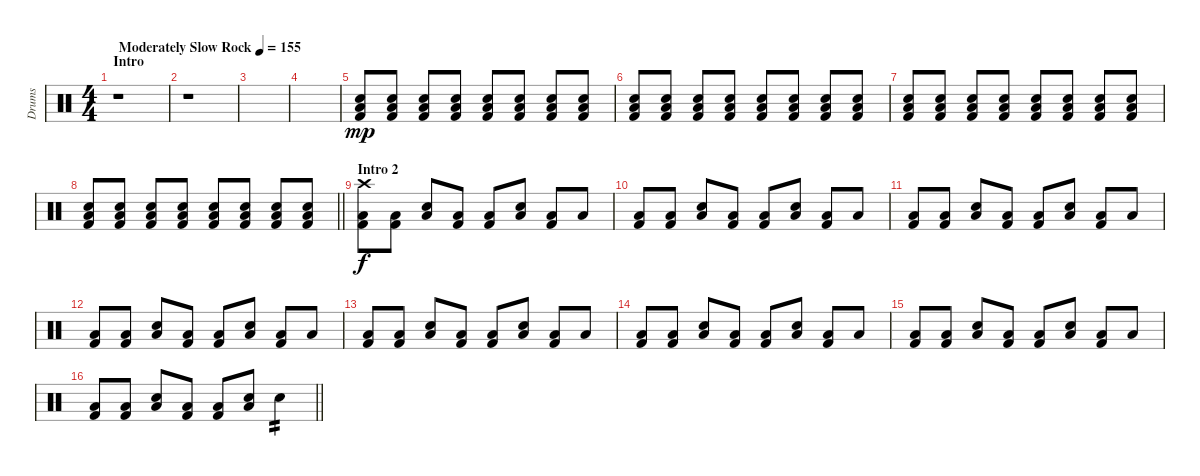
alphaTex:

\track ("Drums" "Drums") {instrument percussion}
\staff {score}
\articulation defaults
\ts (4 4)
\section ("" "Intro")
\tempo (155 "Moderately Slow Rock")
\clef neutral
\ks c
r.1{dy mp volume 7} |
r.1 |
|
|
("Snare (hit) 2" "Low Floor Tom (hit)" "Kick (hit) 2").8{volume 15} ("Snare (hit) 2" "Low Floor Tom (hit)" "Kick (hit) 2").8 ("Snare (hit) 2" "Low Floor Tom (hit)" "Kick (hit) 2").8 ("Snare (hit) 2" "Low Floor Tom (hit)" "Kick (hit) 2").8 ("Snare (hit) 2" "Low Floor Tom (hit)" "Kick (hit) 2").8 ("Snare (hit) 2" "Low Floor Tom (hit)" "Kick (hit) 2").8 ("Snare (hit) 2" "Low Floor Tom (hit)" "Kick (hit) 2").8 ("Snare (hit) 2" "Low Floor Tom (hit)" "Kick (hit) 2").8 |
("Snare (hit) 2" "Low Floor Tom (hit)" "Kick (hit) 2").8 ("Snare (hit) 2" "Low Floor Tom (hit)" "Kick (hit) 2").8 ("Snare (hit) 2" "Low Floor Tom (hit)" "Kick (hit) 2").8 ("Snare (hit) 2" "Low Floor Tom (hit)" "Kick (hit) 2").8 ("Snare (hit) 2" "Low Floor Tom (hit)" "Kick (hit) 2").8 ("Snare (hit) 2" "Low Floor Tom (hit)" "Kick (hit) 2").8 ("Snare (hit) 2" "Low Floor Tom (hit)" "Kick (hit) 2").8 ("Snare (hit) 2" "Low Floor Tom (hit)" "Kick (hit) 2").8 |
("Snare (hit) 2" "Low Floor Tom (hit)" "Kick (hit) 2").8 ("Snare (hit) 2" "Low Floor Tom (hit)" "Kick (hit) 2").8 ("Snare (hit) 2" "Low Floor Tom (hit)" "Kick (hit) 2").8 ("Snare (hit) 2" "Low Floor Tom (hit)" "Kick (hit) 2").8 ("Snare (hit) 2" "Low Floor Tom (hit)" "Kick (hit) 2").8 ("Snare (hit) 2" "Low Floor Tom (hit)" "Kick (hit) 2").8 ("Snare (hit) 2" "Low Floor Tom (hit)" "Kick (hit) 2").8 ("Snare (hit) 2" "Low Floor Tom (hit)" "Kick (hit) 2").8 |
\barLineRight lightlight
("Snare (hit) 2" "Low Floor Tom (hit)" "Kick (hit) 2").8 ("Snare (hit) 2" "Low Floor Tom (hit)" "Kick (hit) 2").8 ("Snare (hit) 2" "Low Floor Tom (hit)" "Kick (hit) 2").8 ("Snare (hit) 2" "Low Floor Tom (hit)" "Kick (hit) 2").8 ("Snare (hit) 2" "Low Floor Tom (hit)" "Kick (hit) 2").8 ("Snare (hit) 2" "Low Floor Tom (hit)" "Kick (hit) 2").8 ("Snare (hit) 2" "Low Floor Tom (hit)" "Kick (hit) 2").8 ("Snare (hit) 2" "Low Floor Tom (hit)" "Kick (hit) 2").8 |
\section ("" "Intro 2")
("Crash high (hit)" "Low Floor Tom (hit)" "Kick (hit) 2").8{dy f} ("Low Floor Tom (hit)" "Kick (hit) 2").8 ("Snare (hit) 2" "Low Floor Tom (hit)").8 ("Low Floor Tom (hit)" "Kick (hit) 2").8 ("Low Floor Tom (hit)" "Kick (hit) 2").8 ("Snare (hit) 2" "Low Floor Tom (hit)").8 ("Low Floor Tom (hit)" "Kick (hit) 2").8 "Low Floor Tom (hit)".8 |
("Low Floor Tom (hit)" "Kick (hit) 2").8 ("Low Floor Tom (hit)" "Kick (hit) 2").8 ("Snare (hit) 2" "Low Floor Tom (hit)").8 ("Low Floor Tom (hit)" "Kick (hit) 2").8 ("Low Floor Tom (hit)" "Kick (hit) 2").8 ("Snare (hit) 2" "Low Floor Tom (hit)").8 ("Low Floor Tom (hit)" "Kick (hit) 2").8 "Low Floor Tom (hit)".8 |
("Low Floor Tom (hit)" "Kick (hit) 2").8 ("Low Floor Tom (hit)" "Kick (hit) 2").8 ("Snare (hit) 2" "Low Floor Tom (hit)").8 ("Low Floor Tom (hit)" "Kick (hit) 2").8 ("Low Floor Tom (hit)" "Kick (hit) 2").8 ("Snare (hit) 2" "Low Floor Tom (hit)").8 ("Low Floor Tom (hit)" "Kick (hit) 2").8 "Low Floor Tom (hit)".8 |
("Low Floor Tom (hit)" "Kick (hit) 2").8 ("Low Floor Tom (hit)" "Kick (hit) 2").8 ("Snare (hit) 2" "Low Floor Tom (hit)").8 ("Low Floor Tom (hit)" "Kick (hit) 2").8 ("Low Floor Tom (hit)" "Kick (hit) 2").8 ("Snare (hit) 2" "Low Floor Tom (hit)").8 ("Low Floor Tom (hit)" "Kick (hit) 2").8 "Low Floor Tom (hit)".8 |
("Low Floor Tom (hit)" "Kick (hit) 2").8 ("Low Floor Tom (hit)" "Kick (hit) 2").8 ("Snare (hit) 2" "Low Floor Tom (hit)").8 ("Low Floor Tom (hit)" "Kick (hit) 2").8 ("Low Floor Tom (hit)" "Kick (hit) 2").8 ("Snare (hit) 2" "Low Floor Tom (hit)").8 ("Low Floor Tom (hit)" "Kick (hit) 2").8 "Low Floor Tom (hit)".8 |
("Low Floor Tom (hit)" "Kick (hit) 2").8 ("Low Floor Tom (hit)" "Kick (hit) 2").8 ("Snare (hit) 2" "Low Floor Tom (hit)").8 ("Low Floor Tom (hit)" "Kick (hit) 2").8 ("Low Floor Tom (hit)" "Kick (hit) 2").8 ("Snare (hit) 2" "Low Floor Tom (hit)").8 ("Low Floor Tom (hit)" "Kick (hit) 2").8 "Low Floor Tom (hit)".8 |
("Low Floor Tom (hit)" "Kick (hit) 2").8 ("Low Floor Tom (hit)" "Kick (hit) 2").8 ("Snare (hit) 2" "Low Floor Tom (hit)").8 ("Low Floor Tom (hit)" "Kick (hit) 2").8 ("Low Floor Tom (hit)" "Kick (hit) 2").8 ("Snare (hit) 2" "Low Floor Tom (hit)").8 ("Low Floor Tom (hit)" "Kick (hit) 2").8 "Low Floor Tom (hit)".8 |
\barLineRight lightlight
("Low Floor Tom (hit)" "Kick (hit) 2").8 ("Low Floor Tom (hit)" "Kick (hit) 2").8 ("Snare (hit) 2" "Low Floor Tom (hit)").8 ("Low Floor Tom (hit)" "Kick (hit) 2").8 ("Low Floor Tom (hit)" "Kick (hit) 2").8 ("Snare (hit) 2" "Low Floor Tom (hit)").8 "Snare (hit) 2".4{tp 2}
